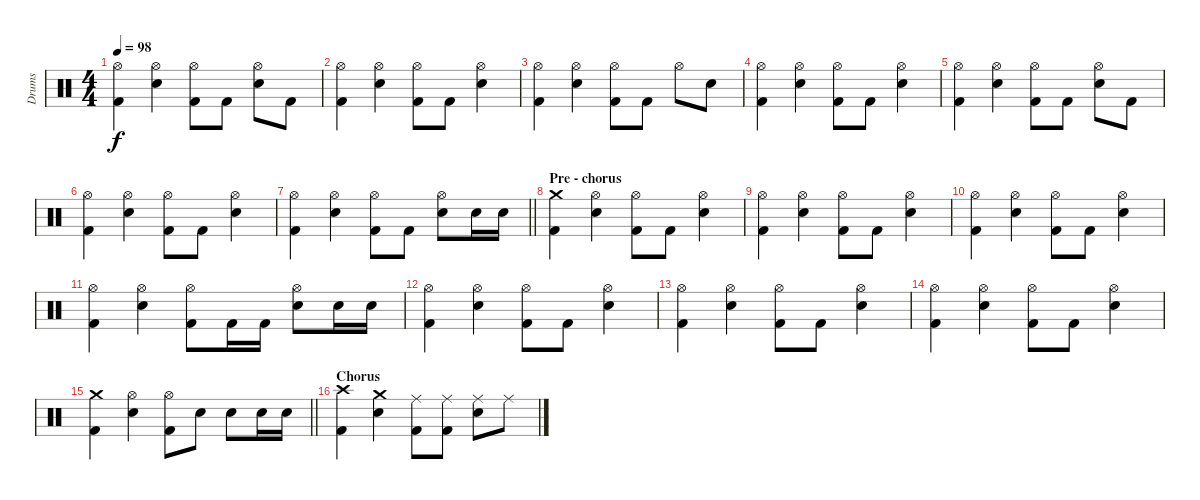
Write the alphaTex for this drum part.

\track ("Drums" "Drums") {instrument percussion}
\staff {score}
\articulation defaults
\ts (4 4)
\tempo 98
\clef neutral
\ks c
("Hi-Hat (open)" "Kick (hit) 2").4{dy f} ("Hi-Hat (open)" "Snare (hit) 2").4 ("Hi-Hat (open)" "Kick (hit) 2").8 "Kick (hit) 2".8 ("Hi-Hat (open)" "Snare (hit) 2").8 "Kick (hit) 2".8 |
("Hi-Hat (open)" "Kick (hit) 2").4 ("Hi-Hat (open)" "Snare (hit) 2").4 ("Hi-Hat (open)" "Kick (hit) 2").8 "Kick (hit) 2".8 ("Hi-Hat (open)" "Snare (hit) 2").4 |
("Hi-Hat (open)" "Kick (hit) 2").4 ("Hi-Hat (open)" "Snare (hit) 2").4 ("Hi-Hat (open)" "Kick (hit) 2").8 "Kick (hit) 2".8 "Hi-Hat (open)".8 "Snare (hit) 2".8 |
("Hi-Hat (open)" "Kick (hit) 2").4 ("Hi-Hat (open)" "Snare (hit) 2").4 ("Hi-Hat (open)" "Kick (hit) 2").8 "Kick (hit) 2".8 ("Hi-Hat (open)" "Snare (hit) 2").4 |
("Hi-Hat (open)" "Kick (hit) 2").4 ("Hi-Hat (open)" "Snare (hit) 2").4 ("Hi-Hat (open)" "Kick (hit) 2").8 "Kick (hit) 2".8 ("Hi-Hat (open)" "Snare (hit) 2").8 "Kick (hit) 2".8 |
("Hi-Hat (open)" "Kick (hit) 2").4 ("Hi-Hat (open)" "Snare (hit) 2").4 ("Hi-Hat (open)" "Kick (hit) 2").8 "Kick (hit) 2".8 ("Hi-Hat (open)" "Snare (hit) 2").4 |
\barLineRight lightlight
("Hi-Hat (open)" "Kick (hit) 2").4 ("Hi-Hat (open)" "Snare (hit) 2").4 ("Hi-Hat (open)" "Kick (hit) 2").8 "Kick (hit) 2".8 ("Hi-Hat (open)" "Snare (hit) 2").8 "Snare (hit) 2".16 "Snare (hit) 2".16 |
\section ("" "Pre - chorus")
("Crash medium (hit)" "Kick (hit) 2").4 ("Hi-Hat (open)" "Snare (hit) 2").4 ("Hi-Hat (open)" "Kick (hit) 2").8 "Kick (hit) 2".8 ("Hi-Hat (open)" "Snare (hit) 2").4 |
("Hi-Hat (open)" "Kick (hit) 2").4 ("Hi-Hat (open)" "Snare (hit) 2").4 ("Hi-Hat (open)" "Kick (hit) 2").8 "Kick (hit) 2".8 ("Hi-Hat (open)" "Snare (hit) 2").4 |
("Hi-Hat (open)" "Kick (hit) 2").4 ("Hi-Hat (open)" "Snare (hit) 2").4 ("Hi-Hat (open)" "Kick (hit) 2").8 "Kick (hit) 2".8 ("Hi-Hat (open)" "Snare (hit) 2").4 |
("Hi-Hat (open)" "Kick (hit) 2").4 ("Hi-Hat (open)" "Snare (hit) 2").4 ("Hi-Hat (open)" "Kick (hit) 2").8 "Kick (hit) 2".16 "Kick (hit) 2".16 ("Hi-Hat (open)" "Snare (hit) 2").8 "Snare (hit) 2".16 "Snare (hit) 2".16 |
("Hi-Hat (open)" "Kick (hit) 2").4 ("Hi-Hat (open)" "Snare (hit) 2").4 ("Hi-Hat (open)" "Kick (hit) 2").8 "Kick (hit) 2".8 ("Hi-Hat (open)" "Snare (hit) 2").4 |
("Hi-Hat (open)" "Kick (hit) 2").4 ("Hi-Hat (open)" "Snare (hit) 2").4 ("Hi-Hat (open)" "Kick (hit) 2").8 "Kick (hit) 2".8 ("Hi-Hat (open)" "Snare (hit) 2").4 |
("Hi-Hat (open)" "Kick (hit) 2").4 ("Hi-Hat (open)" "Snare (hit) 2").4 ("Hi-Hat (open)" "Kick (hit) 2").8 "Kick (hit) 2".8 ("Hi-Hat (open)" "Snare (hit) 2").4 |
\barLineRight lightlight
("Crash medium (hit)" "Kick (hit) 2").4 ("Hi-Hat (open)" "Snare (hit) 2").4 ("Hi-Hat (open)" "Kick (hit) 2").8 "Snare (hit) 2".8 "Snare (hit) 2".8 "Snare (hit) 2".16 "Snare (hit) 2".16 |
\section ("" "Chorus")
("Crash high (hit)" "Kick (hit) 2").4 ("Crash medium (hit)" "Snare (hit) 2").4 ("Ride (middle)" "Kick (hit) 2").8 ("Ride (middle)" "Kick (hit) 2").8 ("Ride (middle)" "Snare (hit) 2").8 "Ride (middle)".8
